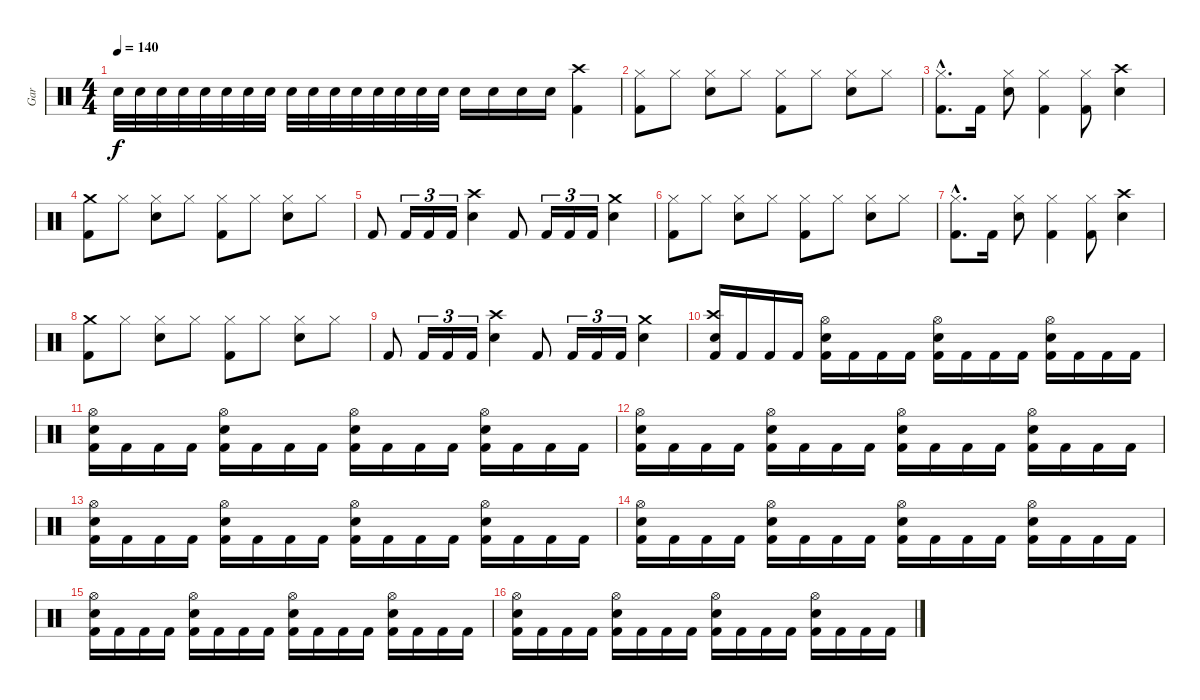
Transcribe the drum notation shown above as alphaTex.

\track ("Gar" "Gar") {instrument percussion}
\staff {score}
\articulation defaults
\ts (4 4)
\tempo 140
\clef neutral
\ks c "Snare (hit) 2".32{dy f} "Snare (hit) 2".32 "Snare (hit) 2".32 "Snare (hit) 2".32 "Snare (hit) 2".32 "Snare (hit) 2".32 "Snare (hit) 2".32 "Snare (hit) 2".32 "Snare (hit) 2".32 "Snare (hit) 2".32 "Snare (hit) 2".32 "Snare (hit) 2".32 "Snare (hit) 2".32 "Snare (hit) 2".32 "Snare (hit) 2".32 "Snare (hit) 2".32 "Snare (hit) 2".16 "Snare (hit) 2".16 "Snare (hit) 2".16 "Snare (hit) 2".16
("Crash high (hit)" "Kick (hit) 2").4 |
("Hi-Hat (closed)" "Kick (hit) 2").8 "Hi-Hat (closed)".8 ("Hi-Hat (closed)" "Snare (hit) 2").8 "Hi-Hat (closed)".8 ("Hi-Hat (closed)" "Kick (hit) 2").8 "Hi-Hat (closed)".8 ("Hi-Hat (closed)" "Snare (hit) 2").8 "Hi-Hat (closed)".8 |
("Hi-Hat (closed)"{hac} "Kick (hit) 2"{hac}).8{d} "Kick (hit) 2".16 ("Hi-Hat (closed)" "Snare (hit) 2").8 ("Hi-Hat (closed)" "Kick (hit) 2").4 ("Hi-Hat (closed)" "Kick (hit) 2").8 ("Crash high (hit)" "Snare (hit) 2").4 |
("Crash medium (hit)" "Kick (hit) 2").8 "Hi-Hat (closed)".8 ("Hi-Hat (closed)" "Snare (hit) 2").8 "Hi-Hat (closed)".8 ("Hi-Hat (closed)" "Kick (hit) 2").8 "Hi-Hat (closed)".8 ("Hi-Hat (closed)" "Snare (hit) 2").8 "Hi-Hat (closed)".8 |
"Kick (hit) 2".8 "Kick (hit) 2".16{tu (3 2)} "Kick (hit) 2".16{tu (3 2)} "Kick (hit) 2".16{tu (3 2)} ("Crash high (hit)" "Snare (hit) 2").4 "Kick (hit) 2".8 "Kick (hit) 2".16{tu (3 2)} "Kick (hit) 2".16{tu (3 2)} "Kick (hit) 2".16{tu (3 2)} ("Crash medium (hit)" "Snare (hit) 2").4 |
("Hi-Hat (closed)" "Kick (hit) 2").8 "Hi-Hat (closed)".8 ("Hi-Hat (closed)" "Snare (hit) 2").8 "Hi-Hat (closed)".8 ("Hi-Hat (closed)" "Kick (hit) 2").8 "Hi-Hat (closed)".8 ("Hi-Hat (closed)" "Snare (hit) 2").8 "Hi-Hat (closed)".8 |
("Hi-Hat (closed)"{hac} "Kick (hit) 2"{hac}).8{d} "Kick (hit) 2".16 ("Hi-Hat (closed)" "Snare (hit) 2").8 ("Hi-Hat (closed)" "Kick (hit) 2").4 ("Hi-Hat (closed)" "Kick (hit) 2").8 ("Crash high (hit)" "Snare (hit) 2").4 |
("Crash medium (hit)" "Kick (hit) 2").8 "Hi-Hat (closed)".8 ("Hi-Hat (closed)" "Snare (hit) 2").8 "Hi-Hat (closed)".8 ("Hi-Hat (closed)" "Kick (hit) 2").8 "Hi-Hat (closed)".8 ("Hi-Hat (closed)" "Snare (hit) 2").8 "Hi-Hat (closed)".8 |
"Kick (hit) 2".8 "Kick (hit) 2".16{tu (3 2)} "Kick (hit) 2".16{tu (3 2)} "Kick (hit) 2".16{tu (3 2)} ("Crash high (hit)" "Snare (hit) 2").4 "Kick (hit) 2".8 "Kick (hit) 2".16{tu (3 2)} "Kick (hit) 2".16{tu (3 2)} "Kick (hit) 2".16{tu (3 2)} ("Crash medium (hit)" "Snare (hit) 2").4 |
("Crash high (hit)" "Snare (hit) 2" "Kick (hit) 2").16 "Kick (hit) 2".16 "Kick (hit) 2".16 "Kick (hit) 2".16 ("Hi-Hat (open)" "Snare (hit) 2" "Kick (hit) 2").16 "Kick (hit) 2".16 "Kick (hit) 2".16 "Kick (hit) 2".16 ("Hi-Hat (open)" "Snare (hit) 2" "Kick (hit) 2").16 "Kick (hit) 2".16 "Kick (hit) 2".16 "Kick (hit) 2".16 ("Hi-Hat (open)" "Snare (hit) 2" "Kick (hit) 2").16 "Kick (hit) 2".16 "Kick (hit) 2".16 "Kick (hit) 2".16 |
("Hi-Hat (open)" "Snare (hit) 2" "Kick (hit) 2").16 "Kick (hit) 2".16 "Kick (hit) 2".16 "Kick (hit) 2".16 ("Hi-Hat (open)" "Snare (hit) 2" "Kick (hit) 2").16 "Kick (hit) 2".16 "Kick (hit) 2".16 "Kick (hit) 2".16 ("Hi-Hat (open)" "Snare (hit) 2" "Kick (hit) 2").16 "Kick (hit) 2".16 "Kick (hit) 2".16 "Kick (hit) 2".16 ("Hi-Hat (open)" "Snare (hit) 2" "Kick (hit) 2").16 "Kick (hit) 2".16 "Kick (hit) 2".16 "Kick (hit) 2".16 |
("Hi-Hat (open)" "Snare (hit) 2" "Kick (hit) 2").16 "Kick (hit) 2".16 "Kick (hit) 2".16 "Kick (hit) 2".16 ("Hi-Hat (open)" "Snare (hit) 2" "Kick (hit) 2").16 "Kick (hit) 2".16 "Kick (hit) 2".16 "Kick (hit) 2".16 ("Hi-Hat (open)" "Snare (hit) 2" "Kick (hit) 2").16 "Kick (hit) 2".16 "Kick (hit) 2".16 "Kick (hit) 2".16 ("Hi-Hat (open)" "Snare (hit) 2" "Kick (hit) 2").16 "Kick (hit) 2".16 "Kick (hit) 2".16 "Kick (hit) 2".16 |
("Hi-Hat (open)" "Snare (hit) 2" "Kick (hit) 2").16 "Kick (hit) 2".16 "Kick (hit) 2".16 "Kick (hit) 2".16 ("Hi-Hat (open)" "Snare (hit) 2" "Kick (hit) 2").16 "Kick (hit) 2".16 "Kick (hit) 2".16 "Kick (hit) 2".16 ("Hi-Hat (open)" "Snare (hit) 2" "Kick (hit) 2").16 "Kick (hit) 2".16 "Kick (hit) 2".16 "Kick (hit) 2".16 ("Hi-Hat (open)" "Snare (hit) 2" "Kick (hit) 2").16 "Kick (hit) 2".16 "Kick (hit) 2".16 "Kick (hit) 2".16 |
("Hi-Hat (open)" "Snare (hit) 2" "Kick (hit) 2").16 "Kick (hit) 2".16 "Kick (hit) 2".16 "Kick (hit) 2".16 ("Hi-Hat (open)" "Snare (hit) 2" "Kick (hit) 2").16 "Kick (hit) 2".16 "Kick (hit) 2".16 "Kick (hit) 2".16 ("Hi-Hat (open)" "Snare (hit) 2" "Kick (hit) 2").16 "Kick (hit) 2".16 "Kick (hit) 2".16 "Kick (hit) 2".16 ("Hi-Hat (open)" "Snare (hit) 2" "Kick (hit) 2").16 "Kick (hit) 2".16 "Kick (hit) 2".16 "Kick (hit) 2".16 |
("Hi-Hat (open)" "Snare (hit) 2" "Kick (hit) 2").16 "Kick (hit) 2".16 "Kick (hit) 2".16 "Kick (hit) 2".16 ("Hi-Hat (open)" "Snare (hit) 2" "Kick (hit) 2").16 "Kick (hit) 2".16 "Kick (hit) 2".16 "Kick (hit) 2".16 ("Hi-Hat (open)" "Snare (hit) 2" "Kick (hit) 2").16 "Kick (hit) 2".16 "Kick (hit) 2".16 "Kick (hit) 2".16 ("Hi-Hat (open)" "Snare (hit) 2" "Kick (hit) 2").16 "Kick (hit) 2".16 "Kick (hit) 2".16 "Kick (hit) 2".16 |
("Hi-Hat (open)" "Snare (hit) 2" "Kick (hit) 2").16 "Kick (hit) 2".16 "Kick (hit) 2".16 "Kick (hit) 2".16 ("Hi-Hat (open)" "Snare (hit) 2" "Kick (hit) 2").16 "Kick (hit) 2".16 "Kick (hit) 2".16 "Kick (hit) 2".16 ("Hi-Hat (open)" "Snare (hit) 2" "Kick (hit) 2").16 "Kick (hit) 2".16 "Kick (hit) 2".16 "Kick (hit) 2".16 ("Hi-Hat (open)" "Snare (hit) 2" "Kick (hit) 2").16 "Kick (hit) 2".16 "Kick (hit) 2".16 "Kick (hit) 2".16
